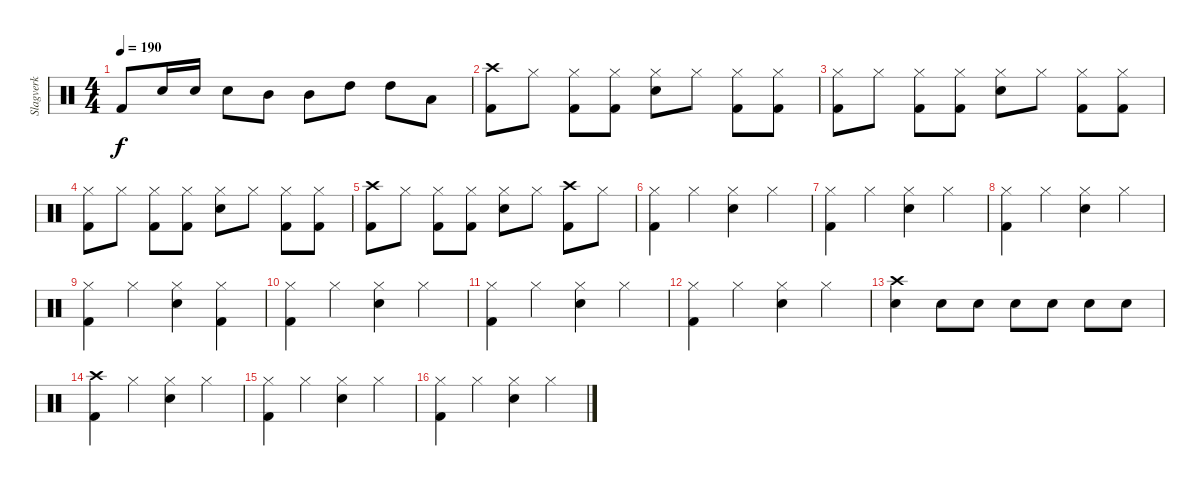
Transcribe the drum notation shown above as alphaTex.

\track ("Slagverk" "Slagverk") {instrument percussion}
\staff {score}
\articulation defaults
\ts (4 4)
\tempo 190
\clef neutral
\ks c "Kick (hit) 2".8{dy f} "Snare (hit) 2".16 "Snare (hit) 2".16 "Snare (hit) 2".8 "Mid Tom (hit)".8 "Mid Tom (hit)".8 "High Tom (hit)".8 "High Tom (hit)".8 "Low Tom (hit)".8
|
("Crash high (hit)" "Kick (hit) 2").8 "Hi-Hat (closed)".8 ("Hi-Hat (closed)" "Kick (hit) 2").8 ("Hi-Hat (closed)" "Kick (hit) 2").8 ("Hi-Hat (closed)" "Snare (hit) 2").8 "Hi-Hat (closed)".8 ("Hi-Hat (closed)" "Kick (hit) 2").8 ("Hi-Hat (closed)" "Kick (hit) 2").8 |
("Hi-Hat (closed)" "Kick (hit) 2").8 "Hi-Hat (closed)".8 ("Hi-Hat (closed)" "Kick (hit) 2").8 ("Hi-Hat (closed)" "Kick (hit) 2").8 ("Hi-Hat (closed)" "Snare (hit) 2").8 "Hi-Hat (closed)".8 ("Hi-Hat (closed)" "Kick (hit) 2").8 ("Hi-Hat (closed)" "Kick (hit) 2").8 |
("Hi-Hat (closed)" "Kick (hit) 2").8 "Hi-Hat (closed)".8 ("Hi-Hat (closed)" "Kick (hit) 2").8 ("Hi-Hat (closed)" "Kick (hit) 2").8 ("Hi-Hat (closed)" "Snare (hit) 2").8 "Hi-Hat (closed)".8 ("Hi-Hat (closed)" "Kick (hit) 2").8 ("Hi-Hat (closed)" "Kick (hit) 2").8 |
("Crash high (hit)" "Kick (hit) 2").8 "Hi-Hat (closed)".8 ("Hi-Hat (closed)" "Kick (hit) 2").8 ("Hi-Hat (closed)" "Kick (hit) 2").8 ("Hi-Hat (closed)" "Snare (hit) 2").8 "Hi-Hat (closed)".8 ("Crash high (hit)" "Kick (hit) 2").8 "Hi-Hat (closed)".8 |
("Hi-Hat (closed)" "Kick (hit) 2").4 "Hi-Hat (closed)".4 ("Hi-Hat (closed)" "Snare (hit) 2").4 "Hi-Hat (closed)".4 |
("Hi-Hat (closed)" "Kick (hit) 2").4 "Hi-Hat (closed)".4 ("Hi-Hat (closed)" "Snare (hit) 2").4 "Hi-Hat (closed)".4 |
("Hi-Hat (closed)" "Kick (hit) 2").4 "Hi-Hat (closed)".4 ("Hi-Hat (closed)" "Snare (hit) 2").4 "Hi-Hat (closed)".4 |
("Hi-Hat (closed)" "Kick (hit) 2").4 "Hi-Hat (closed)".4 ("Hi-Hat (closed)" "Snare (hit) 2").4 ("Hi-Hat (closed)" "Kick (hit) 2").4 |
("Hi-Hat (closed)" "Kick (hit) 2").4 "Hi-Hat (closed)".4 ("Hi-Hat (closed)" "Snare (hit) 2").4 "Hi-Hat (closed)".4 |
("Hi-Hat (closed)" "Kick (hit) 2").4 "Hi-Hat (closed)".4 ("Hi-Hat (closed)" "Snare (hit) 2").4 "Hi-Hat (closed)".4 |
("Hi-Hat (closed)" "Kick (hit) 2").4 "Hi-Hat (closed)".4 ("Hi-Hat (closed)" "Snare (hit) 2").4 "Hi-Hat (closed)".4 |
("Crash high (hit)" "Snare (hit) 2").4 "Snare (hit) 2".8 "Snare (hit) 2".8 "Snare (hit) 2".8 "Snare (hit) 2".8 "Snare (hit) 2".8 "Snare (hit) 2".8 |
("Crash high (hit)" "Kick (hit) 2").4 "Hi-Hat (closed)".4 ("Hi-Hat (closed)" "Snare (hit) 2").4 "Hi-Hat (closed)".4 |
("Hi-Hat (closed)" "Kick (hit) 2").4 "Hi-Hat (closed)".4 ("Hi-Hat (closed)" "Snare (hit) 2").4 "Hi-Hat (closed)".4 |
("Hi-Hat (closed)" "Kick (hit) 2").4 "Hi-Hat (closed)".4 ("Hi-Hat (closed)" "Snare (hit) 2").4 "Hi-Hat (closed)".4
